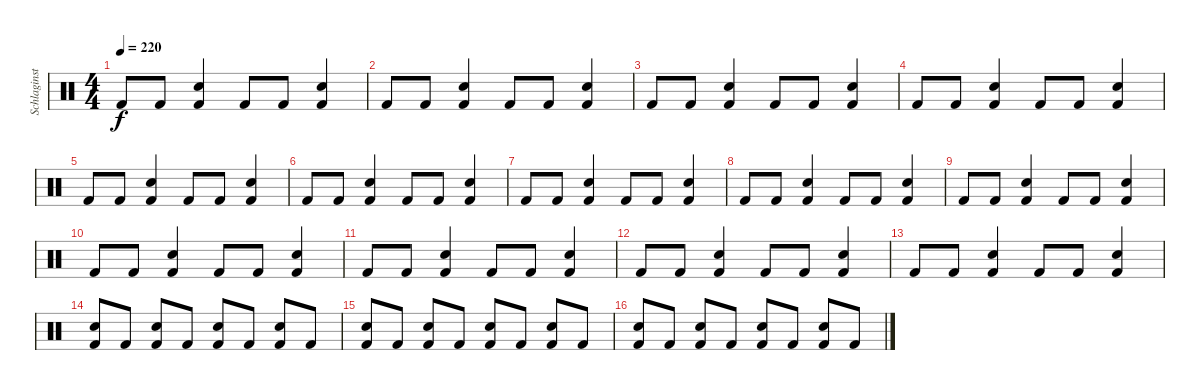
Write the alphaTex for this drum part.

\track ("Schlaginstrumente - Auswahl" "Schlaginst") {instrument percussion}
\staff {score}
\articulation defaults
\ts (4 4)
\tempo 220
\clef neutral
\ks c "Kick (hit) 2".8{dy f} "Kick (hit) 2".8
("Snare (hit) 2" "Kick (hit) 2").4 "Kick (hit) 2".8 "Kick (hit) 2".8 ("Snare (hit) 2" "Kick (hit) 2").4 |
"Kick (hit) 2".8 "Kick (hit) 2".8 ("Snare (hit) 2" "Kick (hit) 2").4 "Kick (hit) 2".8 "Kick (hit) 2".8 ("Snare (hit) 2" "Kick (hit) 2").4 |
"Kick (hit) 2".8 "Kick (hit) 2".8 ("Snare (hit) 2" "Kick (hit) 2").4 "Kick (hit) 2".8 "Kick (hit) 2".8 ("Snare (hit) 2" "Kick (hit) 2").4 |
"Kick (hit) 2".8 "Kick (hit) 2".8 ("Snare (hit) 2" "Kick (hit) 2").4 "Kick (hit) 2".8 "Kick (hit) 2".8 ("Snare (hit) 2" "Kick (hit) 2").4 |
"Kick (hit) 2".8 "Kick (hit) 2".8 ("Snare (hit) 2" "Kick (hit) 2").4 "Kick (hit) 2".8 "Kick (hit) 2".8 ("Snare (hit) 2" "Kick (hit) 2").4 |
"Kick (hit) 2".8 "Kick (hit) 2".8 ("Snare (hit) 2" "Kick (hit) 2").4 "Kick (hit) 2".8 "Kick (hit) 2".8 ("Snare (hit) 2" "Kick (hit) 2").4 |
"Kick (hit) 2".8 "Kick (hit) 2".8 ("Snare (hit) 2" "Kick (hit) 2").4 "Kick (hit) 2".8 "Kick (hit) 2".8 ("Snare (hit) 2" "Kick (hit) 2").4 |
"Kick (hit) 2".8 "Kick (hit) 2".8 ("Snare (hit) 2" "Kick (hit) 2").4 "Kick (hit) 2".8 "Kick (hit) 2".8 ("Snare (hit) 2" "Kick (hit) 2").4 |
"Kick (hit) 2".8 "Kick (hit) 2".8 ("Snare (hit) 2" "Kick (hit) 2").4 "Kick (hit) 2".8 "Kick (hit) 2".8 ("Snare (hit) 2" "Kick (hit) 2").4 |
"Kick (hit) 2".8 "Kick (hit) 2".8 ("Snare (hit) 2" "Kick (hit) 2").4 "Kick (hit) 2".8 "Kick (hit) 2".8 ("Snare (hit) 2" "Kick (hit) 2").4 |
"Kick (hit) 2".8 "Kick (hit) 2".8 ("Snare (hit) 2" "Kick (hit) 2").4 "Kick (hit) 2".8 "Kick (hit) 2".8 ("Snare (hit) 2" "Kick (hit) 2").4 |
"Kick (hit) 2".8 "Kick (hit) 2".8 ("Snare (hit) 2" "Kick (hit) 2").4 "Kick (hit) 2".8 "Kick (hit) 2".8 ("Snare (hit) 2" "Kick (hit) 2").4 |
"Kick (hit) 2".8 "Kick (hit) 2".8 ("Snare (hit) 2" "Kick (hit) 2").4 "Kick (hit) 2".8 "Kick (hit) 2".8 ("Snare (hit) 2" "Kick (hit) 2").4 |
("Snare (hit) 2" "Kick (hit) 2").8 "Kick (hit) 2".8 ("Snare (hit) 2" "Kick (hit) 2").8 "Kick (hit) 2".8 ("Snare (hit) 2" "Kick (hit) 2").8 "Kick (hit) 2".8 ("Snare (hit) 2" "Kick (hit) 2").8 "Kick (hit) 2".8 |
("Snare (hit) 2" "Kick (hit) 2").8 "Kick (hit) 2".8 ("Snare (hit) 2" "Kick (hit) 2").8 "Kick (hit) 2".8 ("Snare (hit) 2" "Kick (hit) 2").8 "Kick (hit) 2".8 ("Snare (hit) 2" "Kick (hit) 2").8 "Kick (hit) 2".8 |
("Snare (hit) 2" "Kick (hit) 2").8 "Kick (hit) 2".8 ("Snare (hit) 2" "Kick (hit) 2").8 "Kick (hit) 2".8 ("Snare (hit) 2" "Kick (hit) 2").8 "Kick (hit) 2".8 ("Snare (hit) 2" "Kick (hit) 2").8 "Kick (hit) 2".8
